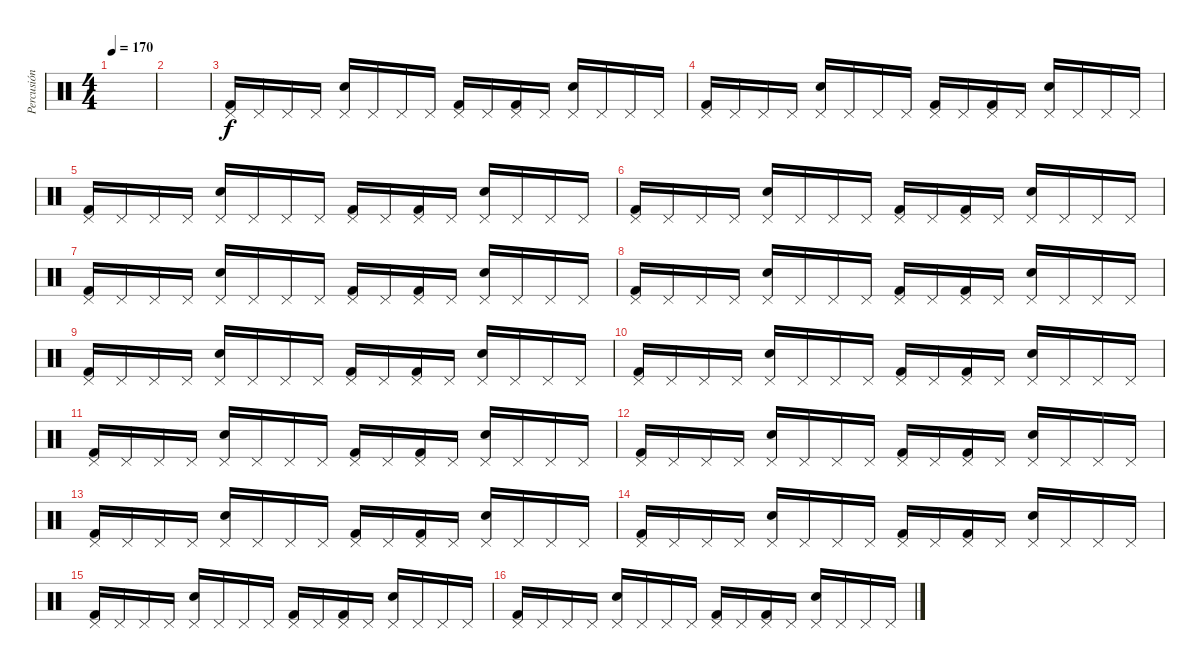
\track ("Percusión" "Percusión") {instrument percussion}
\staff {score}
\articulation defaults
\ts (4 4)
\tempo 170
\clef neutral
\ks c
|
|
("Pedal Hi-Hat (hit)" "Kick (hit) 2").16 "Pedal Hi-Hat (hit)".16 "Pedal Hi-Hat (hit)".16 "Pedal Hi-Hat (hit)".16 ("Pedal Hi-Hat (hit)" "Electric Snare (hit)").16 "Pedal Hi-Hat (hit)".16 "Pedal Hi-Hat (hit)".16 "Pedal Hi-Hat (hit)".16 ("Pedal Hi-Hat (hit)" "Kick (hit) 2").16 "Pedal Hi-Hat (hit)".16 ("Pedal Hi-Hat (hit)" "Kick (hit) 2").16 "Pedal Hi-Hat (hit)".16 ("Pedal Hi-Hat (hit)" "Electric Snare (hit)").16 "Pedal Hi-Hat (hit)".16 "Pedal Hi-Hat (hit)".16 "Pedal Hi-Hat (hit)".16 |
("Pedal Hi-Hat (hit)" "Kick (hit) 2").16 "Pedal Hi-Hat (hit)".16 "Pedal Hi-Hat (hit)".16 "Pedal Hi-Hat (hit)".16 ("Pedal Hi-Hat (hit)" "Electric Snare (hit)").16 "Pedal Hi-Hat (hit)".16 "Pedal Hi-Hat (hit)".16 "Pedal Hi-Hat (hit)".16 ("Pedal Hi-Hat (hit)" "Kick (hit) 2").16 "Pedal Hi-Hat (hit)".16 ("Pedal Hi-Hat (hit)" "Kick (hit) 2").16 "Pedal Hi-Hat (hit)".16 ("Pedal Hi-Hat (hit)" "Electric Snare (hit)").16 "Pedal Hi-Hat (hit)".16 "Pedal Hi-Hat (hit)".16 "Pedal Hi-Hat (hit)".16 |
("Pedal Hi-Hat (hit)" "Kick (hit) 2").16 "Pedal Hi-Hat (hit)".16 "Pedal Hi-Hat (hit)".16 "Pedal Hi-Hat (hit)".16 ("Pedal Hi-Hat (hit)" "Electric Snare (hit)").16 "Pedal Hi-Hat (hit)".16 "Pedal Hi-Hat (hit)".16 "Pedal Hi-Hat (hit)".16 ("Pedal Hi-Hat (hit)" "Kick (hit) 2").16 "Pedal Hi-Hat (hit)".16 ("Pedal Hi-Hat (hit)" "Kick (hit) 2").16 "Pedal Hi-Hat (hit)".16 ("Pedal Hi-Hat (hit)" "Electric Snare (hit)").16 "Pedal Hi-Hat (hit)".16 "Pedal Hi-Hat (hit)".16 "Pedal Hi-Hat (hit)".16 |
("Pedal Hi-Hat (hit)" "Kick (hit) 2").16 "Pedal Hi-Hat (hit)".16 "Pedal Hi-Hat (hit)".16 "Pedal Hi-Hat (hit)".16 ("Pedal Hi-Hat (hit)" "Electric Snare (hit)").16 "Pedal Hi-Hat (hit)".16 "Pedal Hi-Hat (hit)".16 "Pedal Hi-Hat (hit)".16 ("Pedal Hi-Hat (hit)" "Kick (hit) 2").16 "Pedal Hi-Hat (hit)".16 ("Pedal Hi-Hat (hit)" "Kick (hit) 2").16 "Pedal Hi-Hat (hit)".16 ("Pedal Hi-Hat (hit)" "Electric Snare (hit)").16 "Pedal Hi-Hat (hit)".16 "Pedal Hi-Hat (hit)".16 "Pedal Hi-Hat (hit)".16 |
("Pedal Hi-Hat (hit)" "Kick (hit) 2").16 "Pedal Hi-Hat (hit)".16 "Pedal Hi-Hat (hit)".16 "Pedal Hi-Hat (hit)".16 ("Pedal Hi-Hat (hit)" "Electric Snare (hit)").16 "Pedal Hi-Hat (hit)".16 "Pedal Hi-Hat (hit)".16 "Pedal Hi-Hat (hit)".16 ("Pedal Hi-Hat (hit)" "Kick (hit) 2").16 "Pedal Hi-Hat (hit)".16 ("Pedal Hi-Hat (hit)" "Kick (hit) 2").16 "Pedal Hi-Hat (hit)".16 ("Pedal Hi-Hat (hit)" "Electric Snare (hit)").16 "Pedal Hi-Hat (hit)".16 "Pedal Hi-Hat (hit)".16 "Pedal Hi-Hat (hit)".16 |
("Pedal Hi-Hat (hit)" "Kick (hit) 2").16 "Pedal Hi-Hat (hit)".16 "Pedal Hi-Hat (hit)".16 "Pedal Hi-Hat (hit)".16 ("Pedal Hi-Hat (hit)" "Electric Snare (hit)").16 "Pedal Hi-Hat (hit)".16 "Pedal Hi-Hat (hit)".16 "Pedal Hi-Hat (hit)".16 ("Pedal Hi-Hat (hit)" "Kick (hit) 2").16 "Pedal Hi-Hat (hit)".16 ("Pedal Hi-Hat (hit)" "Kick (hit) 2").16 "Pedal Hi-Hat (hit)".16 ("Pedal Hi-Hat (hit)" "Electric Snare (hit)").16 "Pedal Hi-Hat (hit)".16 "Pedal Hi-Hat (hit)".16 "Pedal Hi-Hat (hit)".16 |
("Pedal Hi-Hat (hit)" "Kick (hit) 2").16 "Pedal Hi-Hat (hit)".16 "Pedal Hi-Hat (hit)".16 "Pedal Hi-Hat (hit)".16 ("Pedal Hi-Hat (hit)" "Electric Snare (hit)").16 "Pedal Hi-Hat (hit)".16 "Pedal Hi-Hat (hit)".16 "Pedal Hi-Hat (hit)".16 ("Pedal Hi-Hat (hit)" "Kick (hit) 2").16 "Pedal Hi-Hat (hit)".16 ("Pedal Hi-Hat (hit)" "Kick (hit) 2").16 "Pedal Hi-Hat (hit)".16 ("Pedal Hi-Hat (hit)" "Electric Snare (hit)").16 "Pedal Hi-Hat (hit)".16 "Pedal Hi-Hat (hit)".16 "Pedal Hi-Hat (hit)".16 |
("Pedal Hi-Hat (hit)" "Kick (hit) 2").16 "Pedal Hi-Hat (hit)".16 "Pedal Hi-Hat (hit)".16 "Pedal Hi-Hat (hit)".16 ("Pedal Hi-Hat (hit)" "Electric Snare (hit)").16 "Pedal Hi-Hat (hit)".16 "Pedal Hi-Hat (hit)".16 "Pedal Hi-Hat (hit)".16 ("Pedal Hi-Hat (hit)" "Kick (hit) 2").16 "Pedal Hi-Hat (hit)".16 ("Pedal Hi-Hat (hit)" "Kick (hit) 2").16 "Pedal Hi-Hat (hit)".16 ("Pedal Hi-Hat (hit)" "Electric Snare (hit)").16 "Pedal Hi-Hat (hit)".16 "Pedal Hi-Hat (hit)".16 "Pedal Hi-Hat (hit)".16 |
("Pedal Hi-Hat (hit)" "Kick (hit) 2").16 "Pedal Hi-Hat (hit)".16 "Pedal Hi-Hat (hit)".16 "Pedal Hi-Hat (hit)".16 ("Pedal Hi-Hat (hit)" "Electric Snare (hit)").16 "Pedal Hi-Hat (hit)".16 "Pedal Hi-Hat (hit)".16 "Pedal Hi-Hat (hit)".16 ("Pedal Hi-Hat (hit)" "Kick (hit) 2").16 "Pedal Hi-Hat (hit)".16 ("Pedal Hi-Hat (hit)" "Kick (hit) 2").16 "Pedal Hi-Hat (hit)".16 ("Pedal Hi-Hat (hit)" "Electric Snare (hit)").16 "Pedal Hi-Hat (hit)".16 "Pedal Hi-Hat (hit)".16 "Pedal Hi-Hat (hit)".16 |
("Pedal Hi-Hat (hit)" "Kick (hit) 2").16 "Pedal Hi-Hat (hit)".16 "Pedal Hi-Hat (hit)".16 "Pedal Hi-Hat (hit)".16 ("Pedal Hi-Hat (hit)" "Electric Snare (hit)").16 "Pedal Hi-Hat (hit)".16 "Pedal Hi-Hat (hit)".16 "Pedal Hi-Hat (hit)".16 ("Pedal Hi-Hat (hit)" "Kick (hit) 2").16 "Pedal Hi-Hat (hit)".16 ("Pedal Hi-Hat (hit)" "Kick (hit) 2").16 "Pedal Hi-Hat (hit)".16 ("Pedal Hi-Hat (hit)" "Electric Snare (hit)").16 "Pedal Hi-Hat (hit)".16 "Pedal Hi-Hat (hit)".16 "Pedal Hi-Hat (hit)".16 |
("Pedal Hi-Hat (hit)" "Kick (hit) 2").16 "Pedal Hi-Hat (hit)".16 "Pedal Hi-Hat (hit)".16 "Pedal Hi-Hat (hit)".16 ("Pedal Hi-Hat (hit)" "Electric Snare (hit)").16 "Pedal Hi-Hat (hit)".16 "Pedal Hi-Hat (hit)".16 "Pedal Hi-Hat (hit)".16 ("Pedal Hi-Hat (hit)" "Kick (hit) 2").16 "Pedal Hi-Hat (hit)".16 ("Pedal Hi-Hat (hit)" "Kick (hit) 2").16 "Pedal Hi-Hat (hit)".16 ("Pedal Hi-Hat (hit)" "Electric Snare (hit)").16 "Pedal Hi-Hat (hit)".16 "Pedal Hi-Hat (hit)".16 "Pedal Hi-Hat (hit)".16 |
("Pedal Hi-Hat (hit)" "Kick (hit) 2").16 "Pedal Hi-Hat (hit)".16 "Pedal Hi-Hat (hit)".16 "Pedal Hi-Hat (hit)".16 ("Pedal Hi-Hat (hit)" "Electric Snare (hit)").16 "Pedal Hi-Hat (hit)".16 "Pedal Hi-Hat (hit)".16 "Pedal Hi-Hat (hit)".16 ("Pedal Hi-Hat (hit)" "Kick (hit) 2").16 "Pedal Hi-Hat (hit)".16 ("Pedal Hi-Hat (hit)" "Kick (hit) 2").16 "Pedal Hi-Hat (hit)".16 ("Pedal Hi-Hat (hit)" "Electric Snare (hit)").16 "Pedal Hi-Hat (hit)".16 "Pedal Hi-Hat (hit)".16 "Pedal Hi-Hat (hit)".16 |
("Pedal Hi-Hat (hit)" "Kick (hit) 2").16 "Pedal Hi-Hat (hit)".16 "Pedal Hi-Hat (hit)".16 "Pedal Hi-Hat (hit)".16 ("Pedal Hi-Hat (hit)" "Electric Snare (hit)").16 "Pedal Hi-Hat (hit)".16 "Pedal Hi-Hat (hit)".16 "Pedal Hi-Hat (hit)".16 ("Pedal Hi-Hat (hit)" "Kick (hit) 2").16 "Pedal Hi-Hat (hit)".16 ("Pedal Hi-Hat (hit)" "Kick (hit) 2").16 "Pedal Hi-Hat (hit)".16 ("Pedal Hi-Hat (hit)" "Electric Snare (hit)").16 "Pedal Hi-Hat (hit)".16 "Pedal Hi-Hat (hit)".16 "Pedal Hi-Hat (hit)".16 |
("Pedal Hi-Hat (hit)" "Kick (hit) 2").16 "Pedal Hi-Hat (hit)".16 "Pedal Hi-Hat (hit)".16 "Pedal Hi-Hat (hit)".16 ("Pedal Hi-Hat (hit)" "Electric Snare (hit)").16 "Pedal Hi-Hat (hit)".16 "Pedal Hi-Hat (hit)".16 "Pedal Hi-Hat (hit)".16 ("Pedal Hi-Hat (hit)" "Kick (hit) 2").16 "Pedal Hi-Hat (hit)".16 ("Pedal Hi-Hat (hit)" "Kick (hit) 2").16 "Pedal Hi-Hat (hit)".16 ("Pedal Hi-Hat (hit)" "Electric Snare (hit)").16 "Pedal Hi-Hat (hit)".16 "Pedal Hi-Hat (hit)".16 "Pedal Hi-Hat (hit)".16
